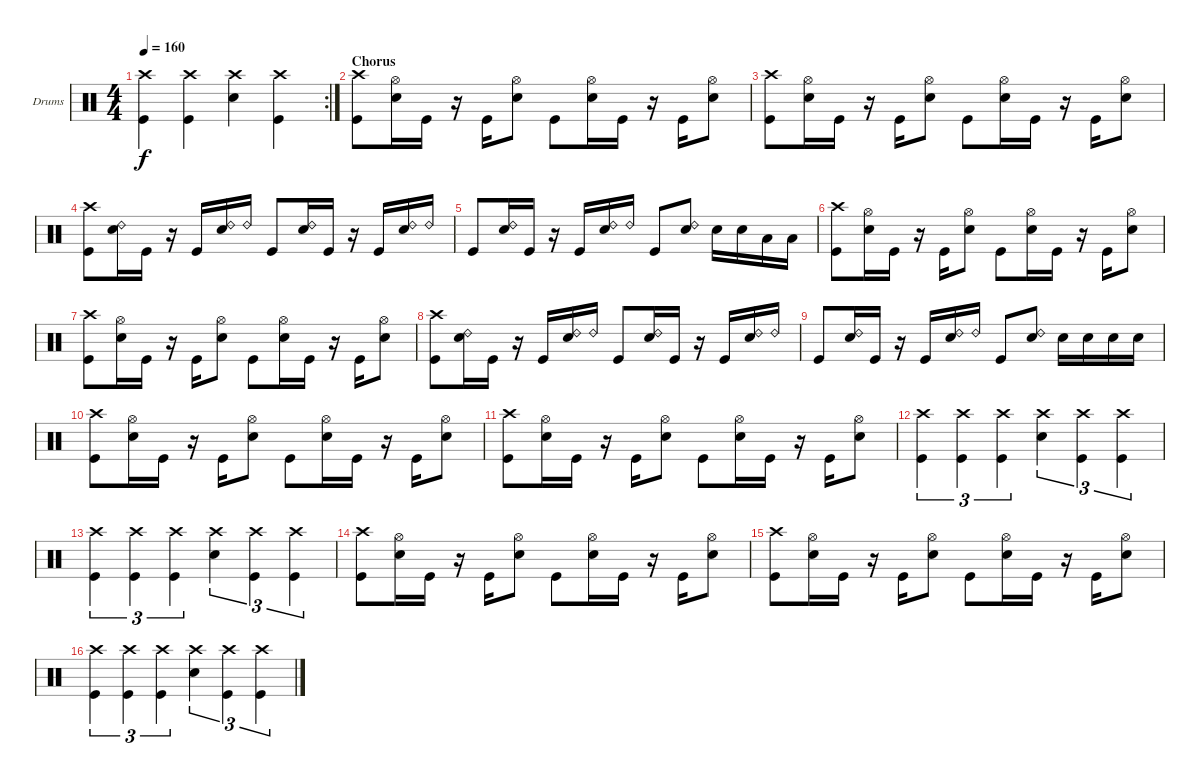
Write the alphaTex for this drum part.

\defaultSystemsLayout 4
\bracketExtendMode groupsimilarinstruments
\firstSystemTrackNameOrientation horizontal
\otherSystemsTrackNameOrientation horizontal
\track ("Drums" "Drums") {instrument percussion}
\staff {score}
\articulation defaults
\rc 2
\ts (4 4)
\tempo 160
\clef neutral
\ks c
("Kick (hit)" "Crash high (hit)").4{dy f} ("Kick (hit)" "Crash high (hit)").4 ("Crash high (hit)" "Snare (hit) 2").4 ("Kick (hit)" "Crash high (hit)").4 |
\section ("" "Chorus")
("Kick (hit)" "Crash high (hit)").8 ("Snare (hit) 2" "Hi-Hat (open)").16 "Kick (hit)".16 r.16 "Kick (hit)".16 ("Snare (hit) 2" "Hi-Hat (open)").8 "Kick (hit)".8 ("Snare (hit) 2" "Hi-Hat (open)").16 "Kick (hit)".16 r.16 "Kick (hit)".16 ("Snare (hit) 2" "Hi-Hat (open)").8 |
("Kick (hit)" "Crash high (hit)").8 ("Snare (hit) 2" "Hi-Hat (open)").16 "Kick (hit)".16 r.16 "Kick (hit)".16 ("Snare (hit) 2" "Hi-Hat (open)").8 "Kick (hit)".8 ("Snare (hit) 2" "Hi-Hat (open)").16 "Kick (hit)".16 r.16 "Kick (hit)".16 ("Snare (hit) 2" "Hi-Hat (open)").8 |
("Kick (hit)" "Crash high (hit)").8 ("Ride (bell) 2" "Snare (hit) 2").16 "Kick (hit)".16 r.16 "Kick (hit)".16 ("Ride (bell) 2" "Snare (hit) 2").16 "Ride (bell) 2".16 "Kick (hit)".8 ("Ride (bell) 2" "Snare (hit) 2").16 "Kick (hit)".16 r.16 "Kick (hit)".16 ("Ride (bell) 2" "Snare (hit) 2").16 "Ride (bell) 2".16 |
"Kick (hit)".8 ("Ride (bell) 2" "Snare (hit) 2").16 "Kick (hit)".16 r.16 "Kick (hit)".16 ("Ride (bell) 2" "Snare (hit) 2").16 "Ride (bell) 2".16 "Kick (hit)".8 ("Ride (bell) 2" "Snare (hit) 2").8 "Snare (hit) 2".16 "Snare (hit) 2".16 "Low Tom (hit)".16 "Low Tom (hit)".16 |
("Kick (hit)" "Crash high (hit)").8 ("Snare (hit) 2" "Hi-Hat (open)").16 "Kick (hit)".16 r.16 "Kick (hit)".16 ("Snare (hit) 2" "Hi-Hat (open)").8 "Kick (hit)".8 ("Snare (hit) 2" "Hi-Hat (open)").16 "Kick (hit)".16 r.16 "Kick (hit)".16 ("Snare (hit) 2" "Hi-Hat (open)").8 |
("Kick (hit)" "Crash high (hit)").8 ("Snare (hit) 2" "Hi-Hat (open)").16 "Kick (hit)".16 r.16 "Kick (hit)".16 ("Snare (hit) 2" "Hi-Hat (open)").8 "Kick (hit)".8 ("Snare (hit) 2" "Hi-Hat (open)").16 "Kick (hit)".16 r.16 "Kick (hit)".16 ("Snare (hit) 2" "Hi-Hat (open)").8 |
("Kick (hit)" "Crash high (hit)").8 ("Ride (bell) 2" "Snare (hit) 2").16 "Kick (hit)".16 r.16 "Kick (hit)".16 ("Ride (bell) 2" "Snare (hit) 2").16 "Ride (bell) 2".16 "Kick (hit)".8 ("Ride (bell) 2" "Snare (hit) 2").16 "Kick (hit)".16 r.16 "Kick (hit)".16 ("Ride (bell) 2" "Snare (hit) 2").16 "Ride (bell) 2".16 |
"Kick (hit)".8 ("Ride (bell) 2" "Snare (hit) 2").16 "Kick (hit)".16 r.16 "Kick (hit)".16 ("Ride (bell) 2" "Snare (hit) 2").16 "Ride (bell) 2".16 "Kick (hit)".8 ("Ride (bell) 2" "Snare (hit) 2").8 "Snare (hit) 2".16 "Snare (hit) 2".16 "Snare (hit) 2".16 "Snare (hit) 2".16 |
("Kick (hit)" "Crash high (hit)").8 ("Snare (hit) 2" "Hi-Hat (open)").16 "Kick (hit)".16 r.16 "Kick (hit)".16 ("Snare (hit) 2" "Hi-Hat (open)").8 "Kick (hit)".8 ("Snare (hit) 2" "Hi-Hat (open)").16 "Kick (hit)".16 r.16 "Kick (hit)".16 ("Snare (hit) 2" "Hi-Hat (open)").8 |
("Kick (hit)" "Crash high (hit)").8 ("Snare (hit) 2" "Hi-Hat (open)").16 "Kick (hit)".16 r.16 "Kick (hit)".16 ("Snare (hit) 2" "Hi-Hat (open)").8 "Kick (hit)".8 ("Snare (hit) 2" "Hi-Hat (open)").16 "Kick (hit)".16 r.16 "Kick (hit)".16 ("Snare (hit) 2" "Hi-Hat (open)").8 |
("Kick (hit)" "Crash high (hit)").4{tu (3 2)} ("Kick (hit)" "Crash high (hit)").4{tu (3 2)} ("Kick (hit)" "Crash high (hit)").4{tu (3 2)} ("Crash high (hit)" "Snare (hit) 2").4{tu (3 2)} ("Kick (hit)" "Crash high (hit)").4{tu (3 2)} ("Kick (hit)" "Crash high (hit)").4{tu (3 2)} |
("Kick (hit)" "Crash high (hit)").4{tu (3 2)} ("Kick (hit)" "Crash high (hit)").4{tu (3 2)} ("Kick (hit)" "Crash high (hit)").4{tu (3 2)} ("Crash high (hit)" "Snare (hit) 2").4{tu (3 2)} ("Kick (hit)" "Crash high (hit)").4{tu (3 2)} ("Kick (hit)" "Crash high (hit)").4{tu (3 2)} |
("Kick (hit)" "Crash high (hit)").8 ("Snare (hit) 2" "Hi-Hat (open)").16 "Kick (hit)".16 r.16 "Kick (hit)".16 ("Snare (hit) 2" "Hi-Hat (open)").8 "Kick (hit)".8 ("Snare (hit) 2" "Hi-Hat (open)").16 "Kick (hit)".16 r.16 "Kick (hit)".16 ("Snare (hit) 2" "Hi-Hat (open)").8 |
("Kick (hit)" "Crash high (hit)").8 ("Snare (hit) 2" "Hi-Hat (open)").16 "Kick (hit)".16 r.16 "Kick (hit)".16 ("Snare (hit) 2" "Hi-Hat (open)").8 "Kick (hit)".8 ("Snare (hit) 2" "Hi-Hat (open)").16 "Kick (hit)".16 r.16 "Kick (hit)".16 ("Snare (hit) 2" "Hi-Hat (open)").8 |
("Kick (hit)" "Crash high (hit)").4{tu (3 2)} ("Kick (hit)" "Crash high (hit)").4{tu (3 2)} ("Kick (hit)" "Crash high (hit)").4{tu (3 2)} ("Crash high (hit)" "Snare (hit) 2").4{tu (3 2)} ("Kick (hit)" "Crash high (hit)").4{tu (3 2)} ("Kick (hit)" "Crash high (hit)").4{tu (3 2)}
